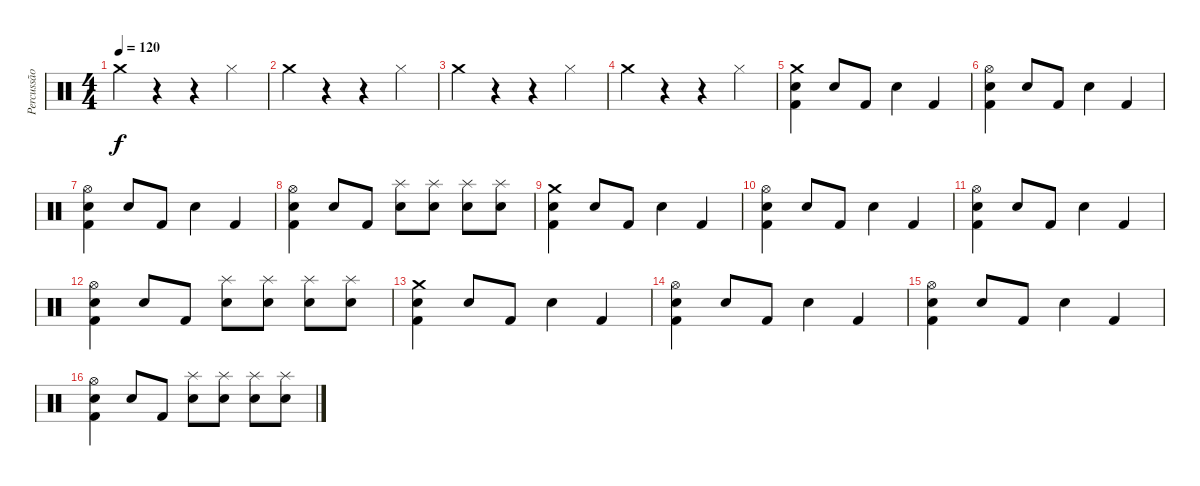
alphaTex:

\track ("Percussão" "Percussão") {instrument percussion}
\staff {score}
\articulation defaults
\ts (4 4)
\tempo 120
\clef neutral
\ks c "Crash medium (hit)".4{dy f}
r.4 r.4 "Hi-Hat (closed)".4 |
"Crash medium (hit)".4 r.4 r.4 "Hi-Hat (closed)".4 |
"Crash medium (hit)".4 r.4 r.4 "Hi-Hat (closed)".4 |
"Crash medium (hit)".4 r.4 r.4 "Hi-Hat (closed)".4 |
("Crash medium (hit)" "Kick (hit) 2" "Snare (hit) 2").4 "Snare (hit) 2".8 "Kick (hit) 2".8 "Snare (hit) 2".4 "Kick (hit) 2".4 |
("Hi-Hat (open)" "Kick (hit) 2" "Snare (hit) 2").4 "Snare (hit) 2".8 "Kick (hit) 2".8 "Snare (hit) 2".4 "Kick (hit) 2".4 |
("Hi-Hat (open)" "Kick (hit) 2" "Snare (hit) 2").4 "Snare (hit) 2".8 "Kick (hit) 2".8 "Snare (hit) 2".4 "Kick (hit) 2".4 |
("Hi-Hat (open)" "Kick (hit) 2" "Snare (hit) 2").4 "Snare (hit) 2".8 "Kick (hit) 2".8 ("Splash (hit)" "Snare (hit) 2").8 ("Splash (hit)" "Snare (hit) 2").8 ("Splash (hit)" "Snare (hit) 2").8 ("Splash (hit)" "Snare (hit) 2").8 |
("Crash medium (hit)" "Kick (hit) 2" "Snare (hit) 2").4 "Snare (hit) 2".8 "Kick (hit) 2".8 "Snare (hit) 2".4 "Kick (hit) 2".4 |
("Hi-Hat (open)" "Kick (hit) 2" "Snare (hit) 2").4 "Snare (hit) 2".8 "Kick (hit) 2".8 "Snare (hit) 2".4 "Kick (hit) 2".4 |
("Hi-Hat (open)" "Kick (hit) 2" "Snare (hit) 2").4 "Snare (hit) 2".8 "Kick (hit) 2".8 "Snare (hit) 2".4 "Kick (hit) 2".4 |
("Hi-Hat (open)" "Kick (hit) 2" "Snare (hit) 2").4 "Snare (hit) 2".8 "Kick (hit) 2".8 ("Splash (hit)" "Snare (hit) 2").8 ("Splash (hit)" "Snare (hit) 2").8 ("Splash (hit)" "Snare (hit) 2").8 ("Splash (hit)" "Snare (hit) 2").8 |
("Crash medium (hit)" "Kick (hit) 2" "Snare (hit) 2").4 "Snare (hit) 2".8 "Kick (hit) 2".8 "Snare (hit) 2".4 "Kick (hit) 2".4 |
("Hi-Hat (open)" "Kick (hit) 2" "Snare (hit) 2").4 "Snare (hit) 2".8 "Kick (hit) 2".8 "Snare (hit) 2".4 "Kick (hit) 2".4 |
("Hi-Hat (open)" "Kick (hit) 2" "Snare (hit) 2").4 "Snare (hit) 2".8 "Kick (hit) 2".8 "Snare (hit) 2".4 "Kick (hit) 2".4 |
("Hi-Hat (open)" "Kick (hit) 2" "Snare (hit) 2").4 "Snare (hit) 2".8 "Kick (hit) 2".8 ("Splash (hit)" "Snare (hit) 2").8 ("Splash (hit)" "Snare (hit) 2").8 ("Splash (hit)" "Snare (hit) 2").8 ("Splash (hit)" "Snare (hit) 2").8
